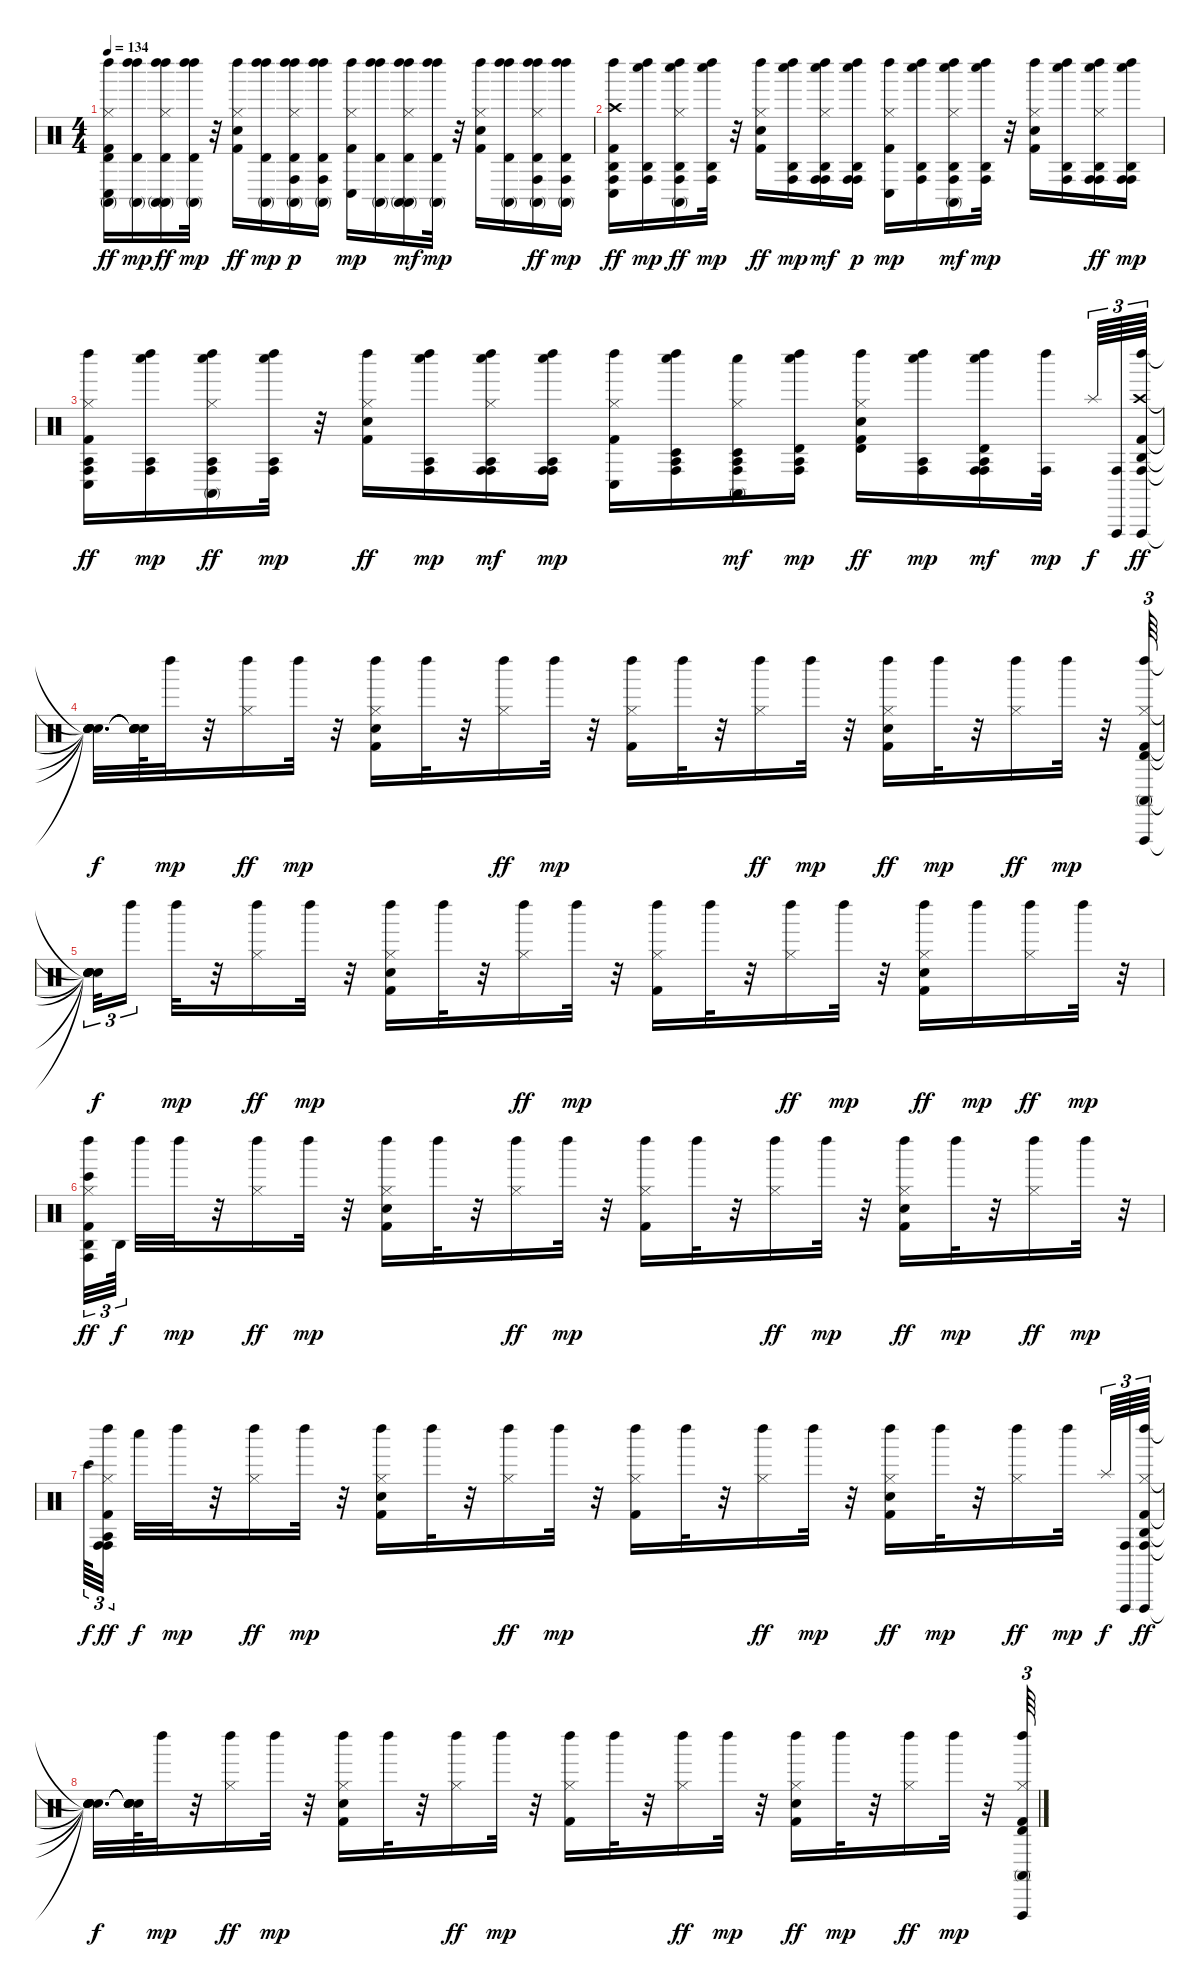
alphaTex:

\track "" {instrument percussion}
\staff {score}
\articulation defaults
\ts (4 4)
\tempo 134
\clef neutral
\ks c
("Left Maraca (hit)" "Conga low (hit)" "Hi-Hat (closed)" "Kick (hit) 2" "Timbale high (hit)" "Conga high (mute)").16{dy ff} ("Left Maraca (hit)" "Timbale high (hit)" "Conga high (mute)" "Left Maraca (hit)").16{dy mp} ("Left Maraca (hit)" "Timbale high (hit)" "Conga high (mute)" "Left Maraca (hit)" "Conga high (mute)" "Hi-Hat (closed)").16{dy ff} ("Left Maraca (hit)" "Timbale high (hit)" "Conga high (mute)" "Left Maraca (hit)").32{dy mp} r.32 ("Left Maraca (hit)" "Hi-Hat (closed)" "Snare (hit) 2" "Kick (hit) 2").16{dy ff} ("Conga high (mute)" "Timbale high (hit)" "Left Maraca (hit)" "Left Maraca (hit)").16{dy mp} ("Left Maraca (hit)" "Timbale high (hit)" "Conga high (mute)" "Hi-Hat (closed)" "Conga high (hit)" "Left Maraca (hit)").16{dy p} ("Left Maraca (hit)" "Timbale high (hit)" "Conga high (mute)" "Left Maraca (hit)" "Conga high (hit)").16 ("Kick (hit) 2" "Hi-Hat (closed)" "Conga low (hit)" "Left Maraca (hit)").16{dy mp} ("Left Maraca (hit)" "Timbale high (hit)" "Conga high (mute)" "Left Maraca (hit)").16 ("Left Maraca (hit)" "Timbale high (hit)" "Conga high (mute)" "Hi-Hat (closed)" "Conga high (mute)" "Left Maraca (hit)").16{dy mf} ("Left Maraca (hit)" "Timbale high (hit)" "Conga high (mute)" "Left Maraca (hit)").32{dy mp} r.32 ("Kick (hit) 2" "Snare (hit) 2" "Hi-Hat (closed)" "Left Maraca (hit)").16 ("Left Maraca (hit)" "Timbale high (hit)" "Conga high (mute)" "Left Maraca (hit)").16 ("Left Maraca (hit)" "Timbale high (hit)" "Conga high (mute)" "Left Maraca (hit)" "Conga high (hit)" "Hi-Hat (closed)").16{dy ff} ("Left Maraca (hit)" "Timbale high (hit)" "Conga high (mute)" "Conga high (hit)" "Left Maraca (hit)").16{dy mp} |
("Left Maraca (hit)" "Conga low (hit)" "Crash high (hit)" "Kick (hit) 2" "Agogo high (hit)" "Conga high (hit)").16{dy ff} ("Whistle low (hit)" "Agogo high (hit)" "Conga high (hit)" "Left Maraca (hit)").16{dy mp} ("Whistle low (hit)" "Agogo high (hit)" "Conga high (hit)" "Left Maraca (hit)" "Conga high (mute)" "Hi-Hat (closed)").16{dy ff} ("Whistle low (hit)" "Agogo high (hit)" "Conga high (hit)" "Left Maraca (hit)").32{dy mp} r.32 ("Left Maraca (hit)" "Hi-Hat (closed)" "Snare (hit) 2" "Kick (hit) 2").16{dy ff} ("Whistle low (hit)" "Agogo high (hit)" "Conga high (hit)" "Left Maraca (hit)").16{dy mp} ("Whistle low (hit)" "Agogo high (hit)" "Conga high (hit)" "Hi-Hat (closed)" "Conga high (hit)" "Left Maraca (hit)").16{dy mf} ("Whistle low (hit)" "Agogo high (hit)" "Conga high (hit)" "Left Maraca (hit)" "Conga high (hit)").16{dy p} ("Kick (hit) 2" "Hi-Hat (closed)" "Conga low (hit)" "Left Maraca (hit)").16{dy mp} ("Whistle low (hit)" "Agogo high (hit)" "Conga high (hit)" "Left Maraca (hit)").16 ("Whistle low (hit)" "Agogo high (hit)" "Conga high (hit)" "Hi-Hat (closed)" "Conga high (mute)" "Left Maraca (hit)").16{dy mf} ("Whistle low (hit)" "Agogo high (hit)" "Conga high (hit)" "Left Maraca (hit)").32{dy mp} r.32 ("Kick (hit) 2" "Snare (hit) 2" "Hi-Hat (closed)" "Left Maraca (hit)").16 ("Whistle low (hit)" "Agogo high (hit)" "Conga high (hit)" "Left Maraca (hit)").16 ("Whistle low (hit)" "Agogo high (hit)" "Conga high (hit)" "Left Maraca (hit)" "Conga high (hit)" "Hi-Hat (closed)").16{dy ff} ("Whistle low (hit)" "Agogo high (hit)" "Conga high (hit)" "Conga high (hit)" "Left Maraca (hit)").16{dy mp} |
("Left Maraca (hit)" "Conga low (hit)" "Hi-Hat (closed)" "Kick (hit) 2" "Agogo tow (hit)" "Conga high (hit)").16{dy ff} ("Whistle low (hit)" "Agogo tow (hit)" "Conga high (hit)" "Left Maraca (hit)").16{dy mp} ("Whistle low (hit)" "Agogo tow (hit)" "Conga high (hit)" "Left Maraca (hit)" "Conga high (mute)" "Hi-Hat (closed)").16{dy ff} ("Whistle low (hit)" "Agogo tow (hit)" "Conga high (hit)" "Left Maraca (hit)").32{dy mp} r.32 ("Left Maraca (hit)" "Hi-Hat (closed)" "Snare (hit) 2" "Kick (hit) 2").16{dy ff} ("Whistle low (hit)" "Agogo tow (hit)" "Conga high (hit)" "Left Maraca (hit)").16{dy mp} ("Whistle low (hit)" "Agogo tow (hit)" "Conga high (hit)" "Hi-Hat (closed)" "Conga high (hit)" "Left Maraca (hit)").16{dy mf} ("Whistle low (hit)" "Agogo tow (hit)" "Conga high (hit)" "Left Maraca (hit)" "Conga high (hit)").16{dy mp} ("Kick (hit) 2" "Hi-Hat (closed)" "Conga low (hit)" "Left Maraca (hit)").16 ("Whistle low (hit)" "Agogo tow (hit)" "Conga high (hit)" "Left Maraca (hit)" "Timbale low (hit)").16 ("Whistle low (hit)" "Agogo tow (hit)" "Conga high (hit)" "Hi-Hat (closed)" "Conga high (mute)" "Timbale low (hit)").16{dy mf} ("Whistle low (hit)" "Agogo tow (hit)" "Conga high (hit)" "Left Maraca (hit)" "Timbale high (hit)").16{dy mp} ("Left Maraca (hit)" "Timbale high (hit)" "Hi-Hat (closed)" "Snare (hit) 2" "Kick (hit) 2").16{dy ff} ("Whistle low (hit)" "Agogo tow (hit)" "Conga high (hit)" "Left Maraca (hit)").16{dy mp} ("Whistle low (hit)" "Agogo tow (hit)" "Conga high (hit)" "Left Maraca (hit)" "Timbale high (hit)" "Conga high (hit)").16{dy mf} ("Conga high (hit)" "Left Maraca (hit)").32{dy mp beam splitsecondary} "Splash (hit)".64{tu (3 2) dy f} ("Conga high (hit)" "Vibraslap (hit)").64{tu (3 2)} ("Agogo high (hit)" "Left Maraca (hit)" "Crash high (hit)" "Kick (hit) 2" "Conga high (hit)" "Vibraslap (hit)").64{tu (3 2) dy ff} |
("Snare (hit)"{t} "Snare (hit)"{t} "Snare (hit)"{t} "Snare (hit)"{t} "Snare (hit)"{t} "Snare (hit)"{t}).32{d dy f} ("Snare (hit)"{t} "Snare (hit)"{t} "Snare (hit)"{t} "Snare (hit)"{t} "Snare (hit)"{t}).64 "Left Maraca (hit)".32{dy mp} r.32 ("Left Maraca (hit)" "Hi-Hat (closed)").16{dy ff} "Left Maraca (hit)".32{dy mp} r.32 ("Kick (hit) 2" "Snare (hit) 2" "Hi-Hat (closed)" "Left Maraca (hit)").16 "Left Maraca (hit)".32 r.32 ("Hi-Hat (closed)" "Left Maraca (hit)").16{dy ff} "Left Maraca (hit)".32{dy mp} r.32 ("Kick (hit) 2" "Hi-Hat (closed)" "Left Maraca (hit)").16 "Left Maraca (hit)".32 r.32 ("Hi-Hat (closed)" "Left Maraca (hit)").16{dy ff} "Left Maraca (hit)".32{dy mp} r.32 ("Left Maraca (hit)" "Hi-Hat (closed)" "Snare (hit) 2" "Kick (hit) 2").16{dy ff} "Left Maraca (hit)".32{dy mp} r.32 ("Left Maraca (hit)" "Hi-Hat (closed)").16{dy ff} "Left Maraca (hit)".32{dy mp} r.32 ("Vibraslap (hit)" "Conga high (mute)" "Left Maraca (hit)" "Hi-Hat (closed)" "Kick (hit) 2" "Timbale high (hit)").64{tu (3 2)} |
("Snare (hit)"{t} "Snare (hit)"{t} "Snare (hit)"{t} "Snare (hit)"{t} "Snare (hit)"{t} "Snare (hit)"{t}).32{tu (3 2) dy f} "Left Maraca (hit)".16{tu (3 2) beam splitsecondary} "Left Maraca (hit)".32{dy mp} r.32 ("Left Maraca (hit)" "Hi-Hat (closed)").16{dy ff} "Left Maraca (hit)".32{dy mp} r.32 ("Kick (hit) 2" "Snare (hit) 2" "Hi-Hat (closed)" "Left Maraca (hit)").16 "Left Maraca (hit)".32 r.32 ("Hi-Hat (closed)" "Left Maraca (hit)").16{dy ff} "Left Maraca (hit)".32{dy mp} r.32 ("Kick (hit) 2" "Hi-Hat (closed)" "Left Maraca (hit)").16 "Left Maraca (hit)".32 r.32 ("Hi-Hat (closed)" "Left Maraca (hit)").16{dy ff} "Left Maraca (hit)".32{dy mp} r.32 ("Left Maraca (hit)" "Hi-Hat (closed)" "Snare (hit) 2" "Kick (hit) 2").16{dy ff} "Left Maraca (hit)".16{dy mp} ("Left Maraca (hit)" "Hi-Hat (closed)").16{dy ff} "Left Maraca (hit)".32{dy mp} r.32 |
("Bongo High (hit)" "Left Maraca (hit)" "Hi-Hat (closed)" "Kick (hit) 2" "Agogo high (hit)" "Conga high (hit)").32{tu (3 2) dy ff} "Agogo high (hit)".64{tu (3 2) dy f beam splitsecondary} "Left Maraca (hit)".32 "Left Maraca (hit)".32{dy mp} r.32 ("Left Maraca (hit)" "Hi-Hat (closed)").16{dy ff} "Left Maraca (hit)".32{dy mp} r.32 ("Kick (hit) 2" "Snare (hit) 2" "Hi-Hat (closed)" "Left Maraca (hit)").16 "Left Maraca (hit)".32 r.32 ("Hi-Hat (closed)" "Left Maraca (hit)").16{dy ff} "Left Maraca (hit)".32{dy mp} r.32 ("Kick (hit) 2" "Hi-Hat (closed)" "Left Maraca (hit)").16 "Left Maraca (hit)".32 r.32 ("Hi-Hat (closed)" "Left Maraca (hit)").16{dy ff} "Left Maraca (hit)".32{dy mp} r.32 ("Left Maraca (hit)" "Hi-Hat (closed)" "Snare (hit) 2" "Kick (hit) 2").16{dy ff} "Left Maraca (hit)".32{dy mp} r.32 ("Left Maraca (hit)" "Hi-Hat (closed)").16{dy ff} "Left Maraca (hit)".32{dy mp} r.32 |
"Bongo High (hit)".64{tu (3 2) dy f} ("Conga high (hit)" "Left Maraca (hit)" "Hi-Hat (closed)" "Kick (hit) 2" "Agogo tow (hit)" "Conga high (hit)").32{tu (3 2) dy ff beam splitsecondary} "Whistle low (hit)".32{dy f} "Left Maraca (hit)".32{dy mp} r.32 ("Hi-Hat (closed)" "Left Maraca (hit)").16{dy ff} "Left Maraca (hit)".32{dy mp} r.32 ("Kick (hit) 2" "Snare (hit) 2" "Hi-Hat (closed)" "Left Maraca (hit)").16 "Left Maraca (hit)".32 r.32 ("Hi-Hat (closed)" "Left Maraca (hit)").16{dy ff} "Left Maraca (hit)".32{dy mp} r.32 ("Kick (hit) 2" "Hi-Hat (closed)" "Left Maraca (hit)").16 "Left Maraca (hit)".32 r.32 ("Left Maraca (hit)" "Hi-Hat (closed)").16{dy ff} "Left Maraca (hit)".32{dy mp} r.32 ("Left Maraca (hit)" "Hi-Hat (closed)" "Snare (hit) 2" "Kick (hit) 2").16{dy ff} "Left Maraca (hit)".32{dy mp} r.32 ("Left Maraca (hit)" "Hi-Hat (closed)").16{dy ff} "Left Maraca (hit)".32{dy mp beam splitsecondary} "Splash (hit)".64{tu (3 2) dy f} ("Vibraslap (hit)" "Conga high (hit)").64{tu (3 2)} ("Agogo high (hit)" "Left Maraca (hit)" "Hi-Hat (closed)" "Kick (hit) 2" "Conga high (hit)" "Vibraslap (hit)").64{tu (3 2) dy ff} |
("Snare (hit)"{t} "Snare (hit)"{t} "Snare (hit)"{t} "Snare (hit)"{t} "Snare (hit)"{t} "Snare (hit)"{t}).32{d dy f} ("Snare (hit)"{t} "Snare (hit)"{t} "Snare (hit)"{t} "Snare (hit)"{t} "Snare (hit)"{t}).64 "Left Maraca (hit)".32{dy mp} r.32 ("Hi-Hat (closed)" "Left Maraca (hit)").16{dy ff} "Left Maraca (hit)".32{dy mp} r.32 ("Kick (hit) 2" "Snare (hit) 2" "Hi-Hat (closed)" "Left Maraca (hit)").16 "Left Maraca (hit)".32 r.32 ("Hi-Hat (closed)" "Left Maraca (hit)").16{dy ff} "Left Maraca (hit)".32{dy mp} r.32 ("Kick (hit) 2" "Hi-Hat (closed)" "Left Maraca (hit)").16 "Left Maraca (hit)".32 r.32 ("Left Maraca (hit)" "Hi-Hat (closed)").16{dy ff} "Left Maraca (hit)".32{dy mp} r.32 ("Left Maraca (hit)" "Hi-Hat (closed)" "Snare (hit) 2" "Kick (hit) 2").16{dy ff} "Left Maraca (hit)".32{dy mp} r.32 ("Left Maraca (hit)" "Hi-Hat (closed)").16{dy ff} "Left Maraca (hit)".32{dy mp} r.32 ("Vibraslap (hit)" "Conga high (mute)" "Left Maraca (hit)" "Hi-Hat (closed)" "Kick (hit) 2" "Timbale high (hit)").64{tu (3 2)}
